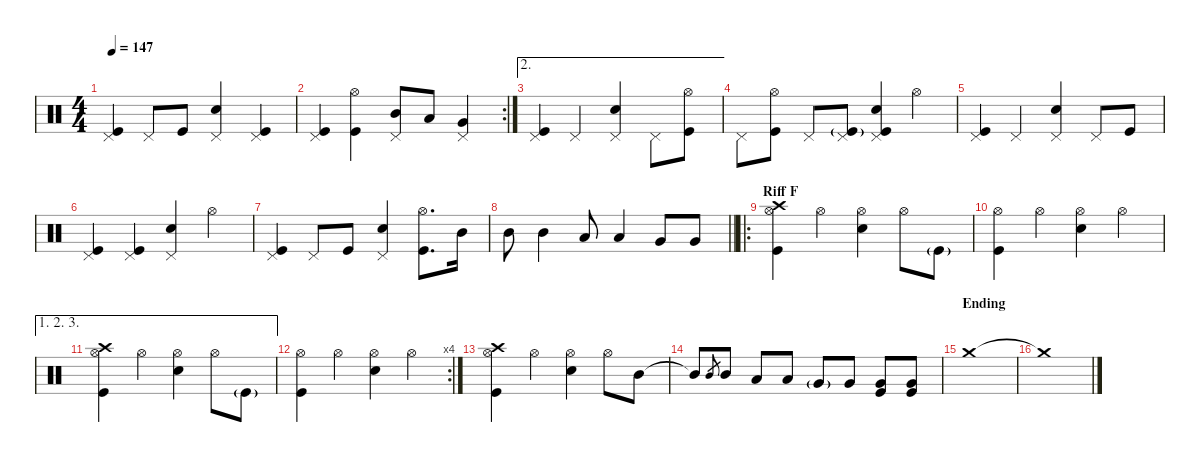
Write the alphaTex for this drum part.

\defaultSystemsLayout 4
\hideDynamics
\bracketExtendMode nobrackets
\singleTrackTrackNamePolicy hidden
\multiTrackTrackNamePolicy hidden
\firstSystemTrackNameMode fullname
\otherSystemsTrackNameOrientation horizontal
\track ("Percussion" "drm.") {instrument percussion}
\staff {score}
\articulation defaults
\ts (4 4)
\tempo 147
\clef neutral
\ks c
("Kick (hit)" "Pedal Hi-Hat (hit)").4{dy f beam Up} "Pedal Hi-Hat (hit)".8{beam Up} "Kick (hit)".8{beam Up} ("Snare (hit) 2" "Pedal Hi-Hat (hit)").4{beam Up} ("Kick (hit)" "Pedal Hi-Hat (hit)").4{beam Up} |
\rc 2
("Kick (hit)" "Pedal Hi-Hat (hit)").4{beam Up} ("Kick (hit)" "Hi-Hat (open)").4{beam Down} ("Mid Tom (hit)" "Pedal Hi-Hat (hit)").8{beam Up} "Low Tom (hit)".8{dy mf beam Up} ("Very Low Tom (hit)" "Pedal Hi-Hat (hit)").4{dy f beam Up} |
\ae 2
("Kick (hit)" "Pedal Hi-Hat (hit)").4{beam Up} "Pedal Hi-Hat (hit)".4{beam Up} ("Snare (hit) 2" "Pedal Hi-Hat (hit)").4{beam Up} "Pedal Hi-Hat (hit)".8{beam Down} ("Kick (hit)" "Hi-Hat (open)").8{beam Down} |
"Pedal Hi-Hat (hit)".8{beam Down} ("Kick (hit)" "Hi-Hat (open)").8{beam Down} "Pedal Hi-Hat (hit)".8{beam Up} ("Kick (hit)"{g} "Pedal Hi-Hat (hit)").8{beam Up} ("Snare (hit) 2" "Kick (hit)" "Pedal Hi-Hat (hit)").4{beam Up} "Hi-Hat (open)".4{beam Down} |
("Kick (hit)" "Pedal Hi-Hat (hit)").4{beam Up} "Pedal Hi-Hat (hit)".4{beam Up} ("Snare (hit) 2" "Pedal Hi-Hat (hit)").4{beam Up} "Pedal Hi-Hat (hit)".8{beam Up} "Kick (hit)".8{beam Up} |
("Kick (hit)" "Pedal Hi-Hat (hit)").4{beam Up} ("Kick (hit)" "Pedal Hi-Hat (hit)").4{beam Up} ("Snare (hit) 2" "Pedal Hi-Hat (hit)").4{beam Up} "Hi-Hat (open)".4{beam Down} |
("Kick (hit)" "Pedal Hi-Hat (hit)").4{beam Up} "Pedal Hi-Hat (hit)".8{beam Up} "Kick (hit)".8{beam Up} ("Snare (hit) 2" "Pedal Hi-Hat (hit)").4{beam Up} ("Kick (hit)" "Hi-Hat (open)").8{d beam Down} "Mid Tom (hit)".16{dy mf beam Down} |
\barLineRight lightlight "Mid Tom (hit)".8{dy ff beam Down} "Mid Tom (hit)".4{beam Down} "Low Tom (hit)".8{dy mf beam Up} "Low Tom (hit)".4{dy ff beam Up} "Very Low Tom (hit)".8{dy f beam Up} "Very Low Tom (hit)".8{beam Up}
|
\ro
\section ("" "Riff F")
("Crash high (hit)" "Kick (hit)" "Hi-Hat (open)").4{beam Down} "Hi-Hat (open)".4{dy mf beam Down} ("Snare (hit) 2" "Hi-Hat (open)").4{dy f beam Down} "Hi-Hat (open)".8{dy mf beam Down} "Kick (hit)"{g}.8{beam Down} |
("Kick (hit)" "Hi-Hat (open)").4{dy f beam Down} "Hi-Hat (open)".4{dy mf beam Down} ("Snare (hit) 2" "Hi-Hat (open)").4{dy f beam Down} "Hi-Hat (open)".4{dy mf beam Down} |
\ae (1 2 3)
("Crash high (hit)" "Kick (hit)" "Hi-Hat (open)").4{beam Down} "Hi-Hat (open)".4{beam Down} ("Snare (hit) 2" "Hi-Hat (open)").4{dy f beam Down} "Hi-Hat (open)".8{dy mf beam Down} "Kick (hit)"{g}.8{beam Down} |
\rc 4
("Kick (hit)" "Hi-Hat (open)").4{dy f beam Down} "Hi-Hat (open)".4{dy mf beam Down} ("Snare (hit) 2" "Hi-Hat (open)").4{dy f beam Down} "Hi-Hat (open)".4{dy mf beam Down} |
("Crash high (hit)" "Kick (hit)" "Hi-Hat (open)").4{beam Down} "Hi-Hat (open)".4{beam Down} ("Snare (hit) 2" "Hi-Hat (open)").4{dy f beam Down} "Hi-Hat (open)".8{dy mf beam Down} "Mid Tom (hit)".8{beam Down} |
"Mid Tom (hit)"{t}.8{dy f beam Up} "Mid Tom (hit)".8{gr dy mf beam Up} "Mid Tom (hit)".8{dy f beam Up} "Low Tom (hit)".8{beam Up} "Low Tom (hit)".8{beam Up} "Very Low Tom (hit)"{g}.8{dy mf beam Up} "Very Low Tom (hit)".8{beam Up} ("Very Low Tom (hit)" "Kick (hit)").8{dy f beam Up} ("Very Low Tom (hit)" "Kick (hit)").8{beam Up} |
\section ("" "Ending")
"Crash medium (hit)".1{dy ff beam Down} |
"Crash medium (hit)"{t}.1{dy f beam Down}
